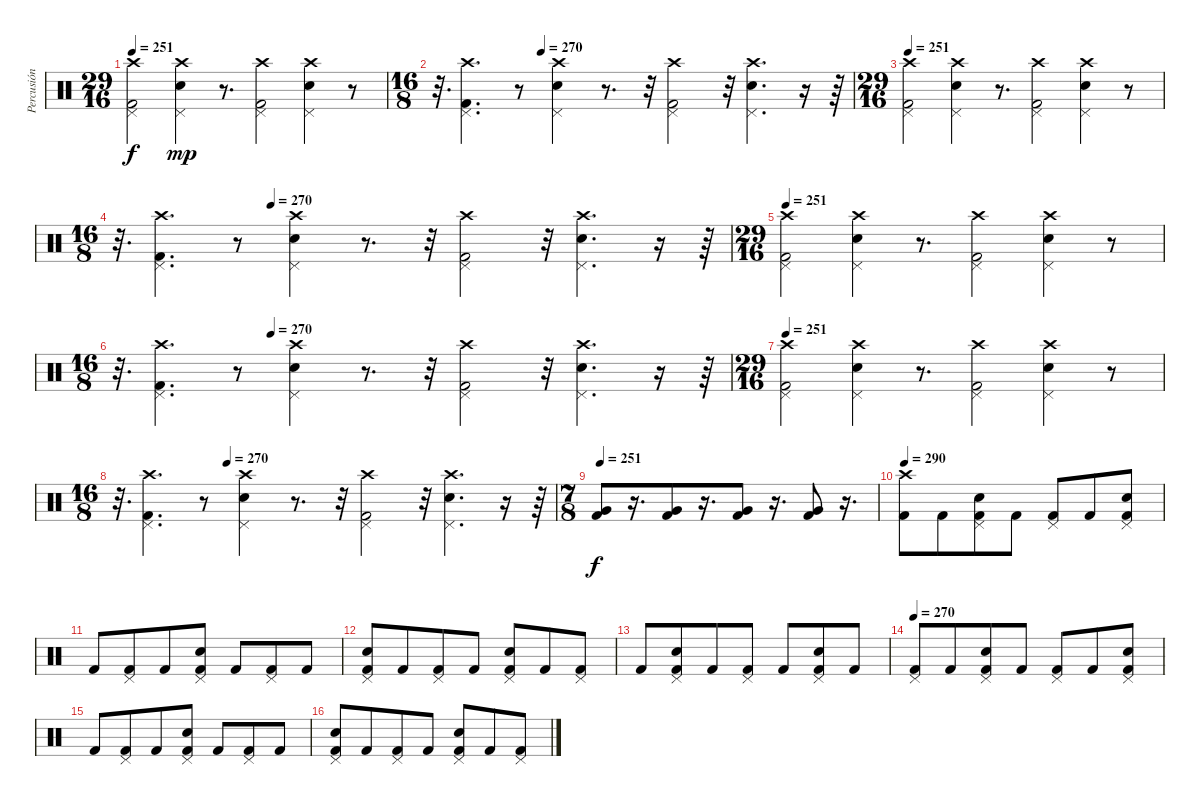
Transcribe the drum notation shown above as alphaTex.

\track ("Percusión" "Percusión") {instrument percussion}
\staff {score}
\articulation defaults
\ts (29 16)
\tempo 251
\clef neutral
\ks c
("Crash high (hit)" "Pedal Hi-Hat (hit)" "Kick (hit) 2").2{dy f} ("Crash high (hit)" "Pedal Hi-Hat (hit)" "Snare (hit) 2").4{dy mp} r.8{d} ("Crash high (hit)" "Pedal Hi-Hat (hit)" "Kick (hit) 2").2 ("Crash high (hit)" "Pedal Hi-Hat (hit)" "Snare (hit) 2").4 r.8 |
\ts (16 8)
\tempo (270 0.25)
r.32{d} ("Crash high (hit)" "Pedal Hi-Hat (hit)" "Kick (hit) 2").4{d} r.8 ("Crash high (hit)" "Pedal Hi-Hat (hit)" "Snare (hit) 2").4 r.8{d} r.32 ("Crash high (hit)" "Pedal Hi-Hat (hit)" "Kick (hit) 2").2 r.32 ("Crash high (hit)" "Pedal Hi-Hat (hit)" "Snare (hit) 2").4{d} r.16 r.64 |
\ts (29 16)
\tempo 251
("Crash high (hit)" "Pedal Hi-Hat (hit)" "Kick (hit) 2").2 ("Crash high (hit)" "Pedal Hi-Hat (hit)" "Snare (hit) 2").4 r.8{d} ("Crash high (hit)" "Pedal Hi-Hat (hit)" "Kick (hit) 2").2 ("Crash high (hit)" "Pedal Hi-Hat (hit)" "Snare (hit) 2").4 r.8 |
\ts (16 8)
\tempo (270 0.25)
r.32{d} ("Crash high (hit)" "Pedal Hi-Hat (hit)" "Kick (hit) 2").4{d} r.8 ("Crash high (hit)" "Pedal Hi-Hat (hit)" "Snare (hit) 2").4 r.8{d} r.32 ("Crash high (hit)" "Pedal Hi-Hat (hit)" "Kick (hit) 2").2 r.32 ("Crash high (hit)" "Pedal Hi-Hat (hit)" "Snare (hit) 2").4{d} r.16 r.64 |
\ts (29 16)
\tempo 251
("Crash high (hit)" "Pedal Hi-Hat (hit)" "Kick (hit) 2").2 ("Crash high (hit)" "Pedal Hi-Hat (hit)" "Snare (hit) 2").4 r.8{d} ("Crash high (hit)" "Pedal Hi-Hat (hit)" "Kick (hit) 2").2 ("Crash high (hit)" "Pedal Hi-Hat (hit)" "Snare (hit) 2").4 r.8 |
\ts (16 8)
\tempo (270 0.25)
r.32{d} ("Crash high (hit)" "Pedal Hi-Hat (hit)" "Kick (hit) 2").4{d} r.8 ("Crash high (hit)" "Pedal Hi-Hat (hit)" "Snare (hit) 2").4 r.8{d} r.32 ("Crash high (hit)" "Pedal Hi-Hat (hit)" "Kick (hit) 2").2 r.32 ("Crash high (hit)" "Pedal Hi-Hat (hit)" "Snare (hit) 2").4{d} r.16 r.64 |
\ts (29 16)
\tempo 251
("Crash high (hit)" "Pedal Hi-Hat (hit)" "Kick (hit) 2").2 ("Crash high (hit)" "Pedal Hi-Hat (hit)" "Snare (hit) 2").4 r.8{d} ("Crash high (hit)" "Pedal Hi-Hat (hit)" "Kick (hit) 2").2 ("Crash high (hit)" "Pedal Hi-Hat (hit)" "Snare (hit) 2").4 r.8 |
\ts (16 8)
\tempo (270 0.25)
r.32{d} ("Crash high (hit)" "Pedal Hi-Hat (hit)" "Kick (hit) 2").4{d} r.8 ("Crash high (hit)" "Pedal Hi-Hat (hit)" "Snare (hit) 2").4 r.8{d} r.32 ("Crash high (hit)" "Pedal Hi-Hat (hit)" "Kick (hit) 2").2 r.32 ("Crash high (hit)" "Pedal Hi-Hat (hit)" "Snare (hit) 2").4{d} r.16 r.64 |
\ts (7 8)
\tempo 251
("Kick (hit) 2" "Very Low Tom (hit)").8{dy f} r.16{d} ("Kick (hit) 2" "Very Low Tom (hit)").8 r.16{d} ("Kick (hit) 2" "Very Low Tom (hit)").8 r.16{d} ("Kick (hit) 2" "Very Low Tom (hit)").8 r.16{d} |
\tempo 270
\tempo 290
("Crash high (hit)" "Kick (hit) 2").8 "Kick (hit) 2".8 ("Pedal Hi-Hat (hit)" "Snare (hit) 2" "Kick (hit) 2").8 "Kick (hit) 2".8 ("Pedal Hi-Hat (hit)" "Kick (hit) 2").8 "Kick (hit) 2".8 ("Pedal Hi-Hat (hit)" "Snare (hit) 2" "Kick (hit) 2").8 |
"Kick (hit) 2".8 ("Pedal Hi-Hat (hit)" "Kick (hit) 2").8 "Kick (hit) 2".8 ("Pedal Hi-Hat (hit)" "Snare (hit) 2" "Kick (hit) 2").8 "Kick (hit) 2".8 ("Pedal Hi-Hat (hit)" "Kick (hit) 2").8 "Kick (hit) 2".8 |
("Pedal Hi-Hat (hit)" "Snare (hit) 2" "Kick (hit) 2").8 "Kick (hit) 2".8 ("Pedal Hi-Hat (hit)" "Kick (hit) 2").8 "Kick (hit) 2".8 ("Pedal Hi-Hat (hit)" "Snare (hit) 2" "Kick (hit) 2").8 "Kick (hit) 2".8 ("Pedal Hi-Hat (hit)" "Kick (hit) 2").8 |
"Kick (hit) 2".8 ("Pedal Hi-Hat (hit)" "Snare (hit) 2" "Kick (hit) 2").8 "Kick (hit) 2".8 ("Pedal Hi-Hat (hit)" "Kick (hit) 2").8 "Kick (hit) 2".8 ("Pedal Hi-Hat (hit)" "Snare (hit) 2" "Kick (hit) 2").8 "Kick (hit) 2".8 |
\tempo 270
("Pedal Hi-Hat (hit)" "Kick (hit) 2").8 "Kick (hit) 2".8 ("Pedal Hi-Hat (hit)" "Snare (hit) 2" "Kick (hit) 2").8 "Kick (hit) 2".8 ("Pedal Hi-Hat (hit)" "Kick (hit) 2").8 "Kick (hit) 2".8 ("Pedal Hi-Hat (hit)" "Snare (hit) 2" "Kick (hit) 2").8 |
"Kick (hit) 2".8 ("Pedal Hi-Hat (hit)" "Kick (hit) 2").8 "Kick (hit) 2".8 ("Pedal Hi-Hat (hit)" "Snare (hit) 2" "Kick (hit) 2").8 "Kick (hit) 2".8 ("Pedal Hi-Hat (hit)" "Kick (hit) 2").8 "Kick (hit) 2".8 |
("Pedal Hi-Hat (hit)" "Snare (hit) 2" "Kick (hit) 2").8 "Kick (hit) 2".8 ("Pedal Hi-Hat (hit)" "Kick (hit) 2").8 "Kick (hit) 2".8 ("Pedal Hi-Hat (hit)" "Snare (hit) 2" "Kick (hit) 2").8 "Kick (hit) 2".8 ("Pedal Hi-Hat (hit)" "Kick (hit) 2").8
